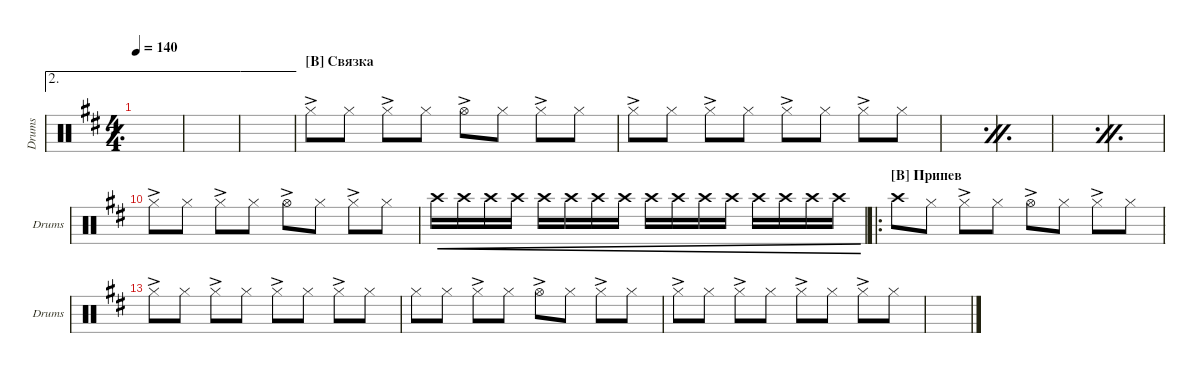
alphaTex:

\defaultSystemsLayout 4
\hideDynamics
\bracketExtendMode groupsimilarinstruments
\singleTrackTrackNamePolicy allsystems
\multiTrackTrackNamePolicy allsystems
\otherSystemsTrackNameOrientation horizontal
\defaultBarNumberDisplay FirstOfSystem
\track ("Drumkit" "Drums") {instrument percussion}
\staff {score}
\articulation defaults
\ae 2
\ts (4 4)
\tempo 140
\clef neutral
\simile simple
\ks bminor
|
\ae 2
|
\ae 2
|
\section ("B" "Связка")
\simile none "Hi-Hat (closed)"{ac}.8 "Hi-Hat (closed)".8 "Hi-Hat (closed)"{ac}.8 "Hi-Hat (closed)".8 "Hi-Hat (open)"{ac}.8 "Hi-Hat (closed)".8 "Hi-Hat (closed)"{ac}.8 "Hi-Hat (closed)".8
|
"Hi-Hat (closed)"{ac}.8 "Hi-Hat (closed)".8 "Hi-Hat (closed)"{ac}.8 "Hi-Hat (closed)".8 "Hi-Hat (closed)"{ac}.8 "Hi-Hat (closed)".8 "Hi-Hat (closed)"{ac}.8 "Hi-Hat (closed)".8 |
\simile firstofdouble
|
\simile secondofdouble
|
\simile firstofdouble
|
\simile secondofdouble
|
\simile none "Hi-Hat (closed)"{ac}.8 "Hi-Hat (closed)".8 "Hi-Hat (closed)"{ac}.8 "Hi-Hat (closed)".8 "Hi-Hat (open)"{ac}.8 "Hi-Hat (closed)".8 "Hi-Hat (closed)"{ac}.8 "Hi-Hat (closed)".8
|
"Crash high (hit)".16{cre} "Crash high (hit)".16{cre} "Crash high (hit)".16{cre} "Crash high (hit)".16{cre} "Crash high (hit)".16{cre} "Crash high (hit)".16{cre} "Crash high (hit)".16{cre} "Crash high (hit)".16{cre} "Crash high (hit)".16{cre} "Crash high (hit)".16{cre} "Crash high (hit)".16{cre} "Crash high (hit)".16{cre} "Crash high (hit)".16{cre} "Crash high (hit)".16{cre} "Crash high (hit)".16{cre} "Crash high (hit)".16{cre} |
\ro
\section ("B" "Припев")
"Crash high (hit)".8 "Hi-Hat (closed)".8 "Hi-Hat (closed)"{ac}.8 "Hi-Hat (closed)".8 "Hi-Hat (open)"{ac}.8 "Hi-Hat (closed)".8 "Hi-Hat (closed)"{ac}.8 "Hi-Hat (closed)".8 |
"Hi-Hat (closed)"{ac}.8 "Hi-Hat (closed)".8 "Hi-Hat (closed)"{ac}.8 "Hi-Hat (closed)".8 "Hi-Hat (closed)"{ac}.8 "Hi-Hat (closed)".8 "Hi-Hat (closed)"{ac}.8 "Hi-Hat (closed)".8 |
"Hi-Hat (closed)".8 "Hi-Hat (closed)".8 "Hi-Hat (closed)"{ac}.8 "Hi-Hat (closed)".8 "Hi-Hat (open)"{ac}.8 "Hi-Hat (closed)".8 "Hi-Hat (closed)"{ac}.8 "Hi-Hat (closed)".8 |
"Hi-Hat (closed)"{ac}.8 "Hi-Hat (closed)".8 "Hi-Hat (closed)"{ac}.8 "Hi-Hat (closed)".8 "Hi-Hat (closed)"{ac}.8 "Hi-Hat (closed)".8 "Hi-Hat (closed)"{ac}.8 "Hi-Hat (closed)".8 |
\simile firstofdouble
